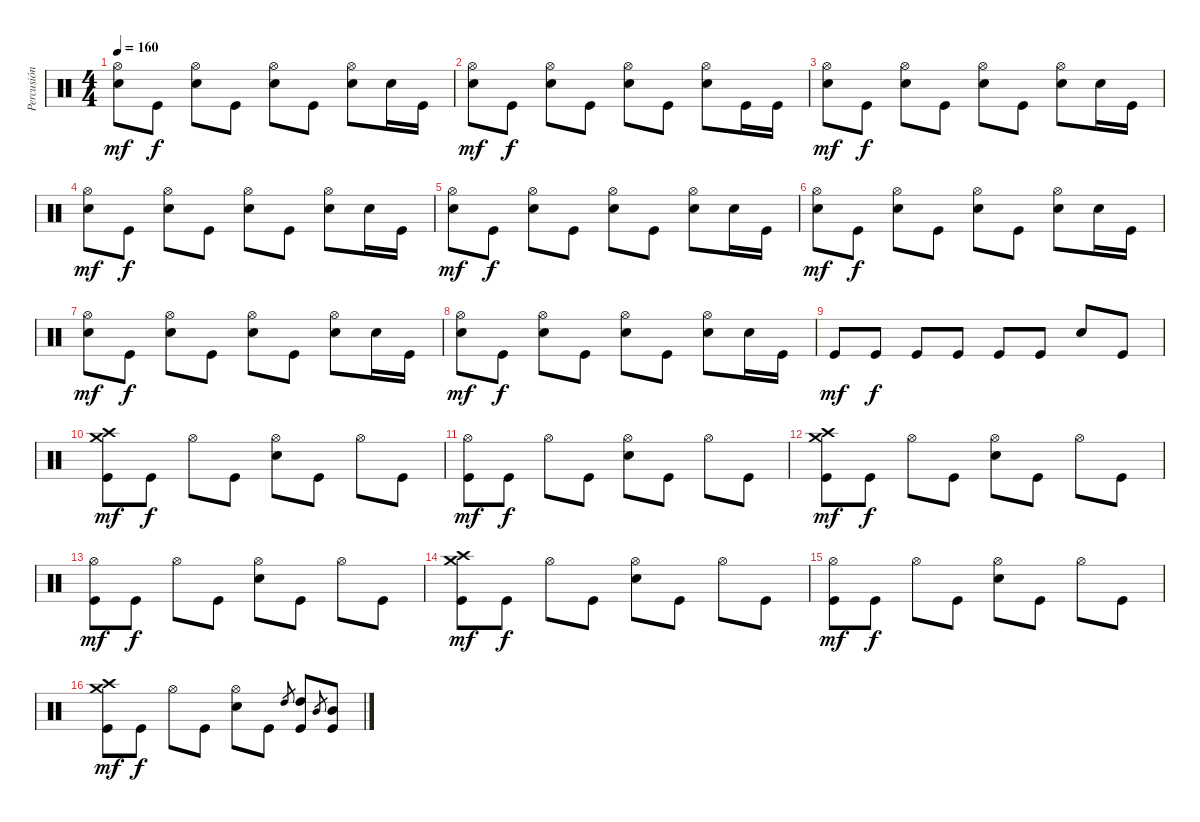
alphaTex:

\track ("Percusión" "Percusión") {instrument percussion}
\staff {score}
\articulation defaults
\ts (4 4)
\tempo 160
\clef neutral
\ks c
("Hi-Hat (open)" "Electric Snare (hit)").8{dy mf} "Kick (hit)".8{dy f} ("Hi-Hat (open)" "Electric Snare (hit)").8 "Kick (hit)".8 ("Hi-Hat (open)" "Electric Snare (hit)").8 "Kick (hit)".8 ("Hi-Hat (open)" "Electric Snare (hit)").8 "Snare (hit)".16 "Kick (hit)".16 |
("Hi-Hat (open)" "Electric Snare (hit)").8{dy mf} "Kick (hit)".8{dy f} ("Hi-Hat (open)" "Electric Snare (hit)").8 "Kick (hit)".8 ("Hi-Hat (open)" "Electric Snare (hit)").8 "Kick (hit)".8 ("Hi-Hat (open)" "Electric Snare (hit)").8 "Kick (hit)".16 "Kick (hit)".16 |
("Hi-Hat (open)" "Electric Snare (hit)").8{dy mf} "Kick (hit)".8{dy f} ("Hi-Hat (open)" "Electric Snare (hit)").8 "Kick (hit)".8 ("Hi-Hat (open)" "Electric Snare (hit)").8 "Kick (hit)".8 ("Hi-Hat (open)" "Electric Snare (hit)").8 "Snare (hit)".16 "Kick (hit)".16 |
("Hi-Hat (open)" "Electric Snare (hit)").8{dy mf} "Kick (hit)".8{dy f} ("Hi-Hat (open)" "Electric Snare (hit)").8 "Kick (hit)".8 ("Hi-Hat (open)" "Electric Snare (hit)").8 "Kick (hit)".8 ("Hi-Hat (open)" "Electric Snare (hit)").8 "Snare (hit)".16 "Kick (hit)".16 |
("Hi-Hat (open)" "Electric Snare (hit)").8{dy mf} "Kick (hit)".8{dy f} ("Hi-Hat (open)" "Electric Snare (hit)").8 "Kick (hit)".8 ("Hi-Hat (open)" "Electric Snare (hit)").8 "Kick (hit)".8 ("Hi-Hat (open)" "Electric Snare (hit)").8 "Snare (hit)".16 "Kick (hit)".16 |
("Hi-Hat (open)" "Electric Snare (hit)").8{dy mf} "Kick (hit)".8{dy f} ("Hi-Hat (open)" "Electric Snare (hit)").8 "Kick (hit)".8 ("Hi-Hat (open)" "Electric Snare (hit)").8 "Kick (hit)".8 ("Hi-Hat (open)" "Electric Snare (hit)").8 "Snare (hit)".16 "Kick (hit)".16 |
("Hi-Hat (open)" "Electric Snare (hit)").8{dy mf} "Kick (hit)".8{dy f} ("Hi-Hat (open)" "Electric Snare (hit)").8 "Kick (hit)".8 ("Hi-Hat (open)" "Electric Snare (hit)").8 "Kick (hit)".8 ("Hi-Hat (open)" "Electric Snare (hit)").8 "Snare (hit)".16 "Kick (hit)".16 |
("Hi-Hat (open)" "Electric Snare (hit)").8{dy mf} "Kick (hit)".8{dy f} ("Hi-Hat (open)" "Electric Snare (hit)").8 "Kick (hit)".8 ("Hi-Hat (open)" "Electric Snare (hit)").8 "Kick (hit)".8 ("Hi-Hat (open)" "Electric Snare (hit)").8 "Snare (hit)".16 "Kick (hit)".16 |
"Kick (hit)".8{dy mf} "Kick (hit)".8{dy f} "Kick (hit)".8 "Kick (hit)".8 "Kick (hit)".8 "Kick (hit)".8 "Electric Snare (hit)".8 "Kick (hit)".8 |
("Crash medium (hit)" "Crash high (hit)" "Kick (hit)").8{dy mf} "Kick (hit)".8{dy f} "Hi-Hat (open)".8 "Kick (hit)".8 ("Hi-Hat (open)" "Electric Snare (hit)").8 "Kick (hit)".8 "Hi-Hat (open)".8 "Kick (hit)".8 |
("Hi-Hat (open)" "Kick (hit)").8{dy mf} "Kick (hit)".8{dy f} "Hi-Hat (open)".8 "Kick (hit)".8 ("Hi-Hat (open)" "Electric Snare (hit)").8 "Kick (hit)".8 "Hi-Hat (open)".8 "Kick (hit)".8 |
("Crash medium (hit)" "Crash high (hit)" "Kick (hit)").8{dy mf} "Kick (hit)".8{dy f} "Hi-Hat (open)".8 "Kick (hit)".8 ("Hi-Hat (open)" "Electric Snare (hit)").8 "Kick (hit)".8 "Hi-Hat (open)".8 "Kick (hit)".8 |
("Hi-Hat (open)" "Kick (hit)").8{dy mf} "Kick (hit)".8{dy f} "Hi-Hat (open)".8 "Kick (hit)".8 ("Hi-Hat (open)" "Electric Snare (hit)").8 "Kick (hit)".8 "Hi-Hat (open)".8 "Kick (hit)".8 |
("Crash medium (hit)" "Crash high (hit)" "Kick (hit)").8{dy mf} "Kick (hit)".8{dy f} "Hi-Hat (open)".8 "Kick (hit)".8 ("Hi-Hat (open)" "Electric Snare (hit)").8 "Kick (hit)".8 "Hi-Hat (open)".8 "Kick (hit)".8 |
("Hi-Hat (open)" "Kick (hit)").8{dy mf} "Kick (hit)".8{dy f} "Hi-Hat (open)".8 "Kick (hit)".8 ("Hi-Hat (open)" "Electric Snare (hit)").8 "Kick (hit)".8 "Hi-Hat (open)".8 "Kick (hit)".8 |
("Crash medium (hit)" "Crash high (hit)" "Kick (hit)").8{dy mf} "Kick (hit)".8{dy f} "Hi-Hat (open)".8 "Kick (hit)".8 ("Hi-Hat (open)" "Electric Snare (hit)").8 "Kick (hit)".8 "High Tom (hit)".8{gr} ("High Tom (hit)" "Kick (hit)").8 "Mid Tom (hit)".8{gr} ("Mid Tom (hit)" "Kick (hit)").8
